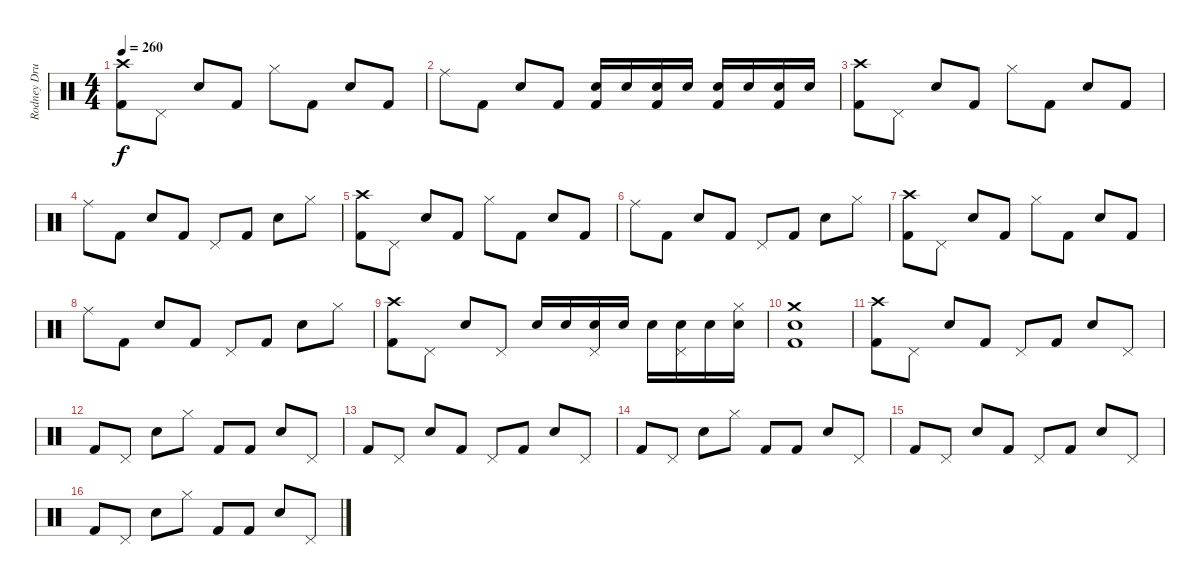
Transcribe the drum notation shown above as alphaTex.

\track ("Rodney Drums" "Rodney Dru") {instrument percussion}
\staff {score}
\articulation defaults
\ts (4 4)
\tempo 260
\clef neutral
\ks c
("Crash high (hit)" "Kick (hit) 2").8{dy f} "Pedal Hi-Hat (hit)".8 "Electric Snare (hit)".8 "Kick (hit) 2".8 "Hi-Hat (closed)".8 "Kick (hit) 2".8 "Electric Snare (hit)".8 "Kick (hit) 2".8 |
"Ride (middle)".8 "Kick (hit) 2".8 "Electric Snare (hit)".8 "Kick (hit) 2".8 ("Electric Snare (hit)" "Kick (hit) 2").16 "Electric Snare (hit)".16 ("Electric Snare (hit)" "Kick (hit) 2").16 "Electric Snare (hit)".16 ("Electric Snare (hit)" "Kick (hit) 2").16 "Electric Snare (hit)".16 ("Electric Snare (hit)" "Kick (hit) 2").16 "Electric Snare (hit)".16 |
("Crash high (hit)" "Kick (hit) 2").8 "Pedal Hi-Hat (hit)".8 "Electric Snare (hit)".8 "Kick (hit) 2".8 "Hi-Hat (closed)".8 "Kick (hit) 2".8 "Electric Snare (hit)".8 "Kick (hit) 2".8 |
"Ride (middle)".8 "Kick (hit) 2".8 "Electric Snare (hit)".8 "Kick (hit) 2".8 "Pedal Hi-Hat (hit)".8 "Kick (hit) 2".8 "Electric Snare (hit)".8 "Hi-Hat (closed)".8 |
("Crash high (hit)" "Kick (hit) 2").8 "Pedal Hi-Hat (hit)".8 "Electric Snare (hit)".8 "Kick (hit) 2".8 "Hi-Hat (closed)".8 "Kick (hit) 2".8 "Electric Snare (hit)".8 "Kick (hit) 2".8 |
"Ride (middle)".8 "Kick (hit) 2".8 "Electric Snare (hit)".8 "Kick (hit) 2".8 "Pedal Hi-Hat (hit)".8 "Kick (hit) 2".8 "Electric Snare (hit)".8 "Hi-Hat (closed)".8 |
("Crash high (hit)" "Kick (hit) 2").8 "Pedal Hi-Hat (hit)".8 "Electric Snare (hit)".8 "Kick (hit) 2".8 "Hi-Hat (closed)".8 "Kick (hit) 2".8 "Electric Snare (hit)".8 "Kick (hit) 2".8 |
"Ride (middle)".8 "Kick (hit) 2".8 "Electric Snare (hit)".8 "Kick (hit) 2".8 "Pedal Hi-Hat (hit)".8 "Kick (hit) 2".8 "Electric Snare (hit)".8 "Hi-Hat (closed)".8 |
("Crash high (hit)" "Kick (hit) 2").8 "Pedal Hi-Hat (hit)".8 "Electric Snare (hit)".8 "Pedal Hi-Hat (hit)".8 "Electric Snare (hit)".16 "Electric Snare (hit)".16 ("Pedal Hi-Hat (hit)" "Electric Snare (hit)").16 "Electric Snare (hit)".16 "Electric Snare (hit)".16 ("Pedal Hi-Hat (hit)" "Electric Snare (hit)").16 "Electric Snare (hit)".16 ("Hi-Hat (closed)" "Electric Snare (hit)").16 |
("Crash medium (hit)" "Electric Snare (hit)" "Kick (hit) 2").1 |
("Crash high (hit)" "Kick (hit) 2").8 "Pedal Hi-Hat (hit)".8 "Electric Snare (hit)".8 "Kick (hit) 2".8 "Pedal Hi-Hat (hit)".8 "Kick (hit) 2".8 "Electric Snare (hit)".8 "Pedal Hi-Hat (hit)".8 |
"Kick (hit) 2".8 "Pedal Hi-Hat (hit)".8 "Electric Snare (hit)".8 "Hi-Hat (closed)".8 "Kick (hit) 2".8 "Kick (hit) 2".8 "Electric Snare (hit)".8 "Pedal Hi-Hat (hit)".8 |
"Kick (hit) 2".8 "Pedal Hi-Hat (hit)".8 "Electric Snare (hit)".8 "Kick (hit) 2".8 "Pedal Hi-Hat (hit)".8 "Kick (hit) 2".8 "Electric Snare (hit)".8 "Pedal Hi-Hat (hit)".8 |
"Kick (hit) 2".8 "Pedal Hi-Hat (hit)".8 "Electric Snare (hit)".8 "Hi-Hat (closed)".8 "Kick (hit) 2".8 "Kick (hit) 2".8 "Electric Snare (hit)".8 "Pedal Hi-Hat (hit)".8 |
"Kick (hit) 2".8 "Pedal Hi-Hat (hit)".8 "Electric Snare (hit)".8 "Kick (hit) 2".8 "Pedal Hi-Hat (hit)".8 "Kick (hit) 2".8 "Electric Snare (hit)".8 "Pedal Hi-Hat (hit)".8 |
"Kick (hit) 2".8 "Pedal Hi-Hat (hit)".8 "Electric Snare (hit)".8 "Hi-Hat (closed)".8 "Kick (hit) 2".8 "Kick (hit) 2".8 "Electric Snare (hit)".8 "Pedal Hi-Hat (hit)".8
